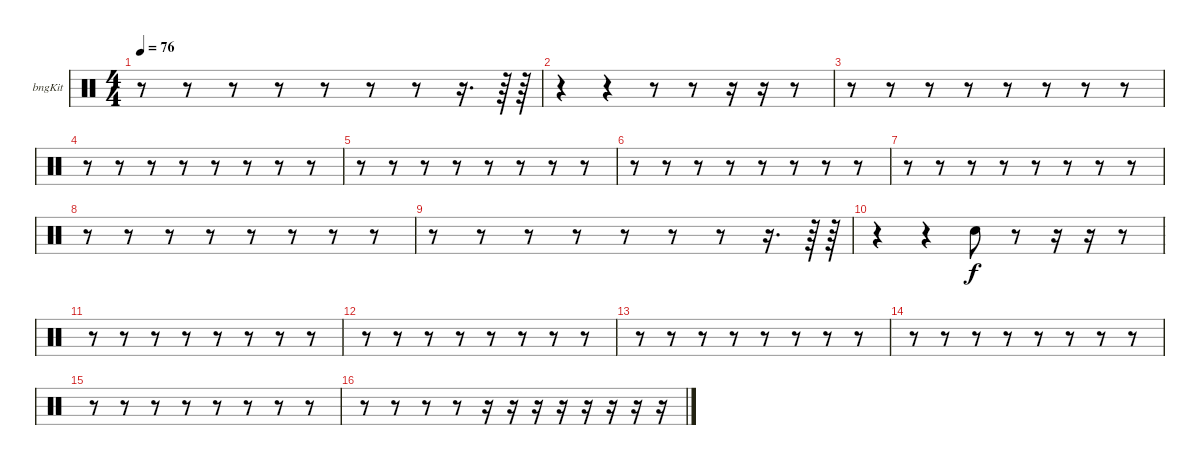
\bracketExtendMode groupsimilarinstruments
\firstSystemTrackNameOrientation horizontal
\otherSystemsTrackNameOrientation horizontal
\track ("Bongos" "bngKit") {instrument percussion}
\staff {score}
\articulation defaults
\ts (4 4)
\tempo 76
\clef neutral
\ks c
r.8{dy f} r.8 r.8 r.8 r.8 r.8 r.8 r.16{d} r.64 r.64 |
r.4 r.4 r.8 r.8 r.16 r.16 r.8 |
r.8 r.8 r.8 r.8 r.8 r.8 r.8 r.8 |
r.8 r.8 r.8 r.8 r.8 r.8 r.8 r.8 |
r.8 r.8 r.8 r.8 r.8 r.8 r.8 r.8 |
r.8 r.8 r.8 r.8 r.8 r.8 r.8 r.8 |
r.8 r.8 r.8 r.8 r.8 r.8 r.8 r.8 |
r.8 r.8 r.8 r.8 r.8 r.8 r.8 r.8 |
r.8 r.8 r.8 r.8 r.8 r.8 r.8 r.16{d} r.64 r.64 |
r.4 r.4 "Snare (hit) 2".8 r.8 r.16 r.16 r.8 |
r.8 r.8 r.8 r.8 r.8 r.8 r.8 r.8 |
r.8 r.8 r.8 r.8 r.8 r.8 r.8 r.8 |
r.8 r.8 r.8 r.8 r.8 r.8 r.8 r.8 |
r.8 r.8 r.8 r.8 r.8 r.8 r.8 r.8 |
r.8 r.8 r.8 r.8 r.8 r.8 r.8 r.8 |
r.8 r.8 r.8 r.8 r.16 r.16 r.16 r.16 r.16 r.16 r.16 r.16
